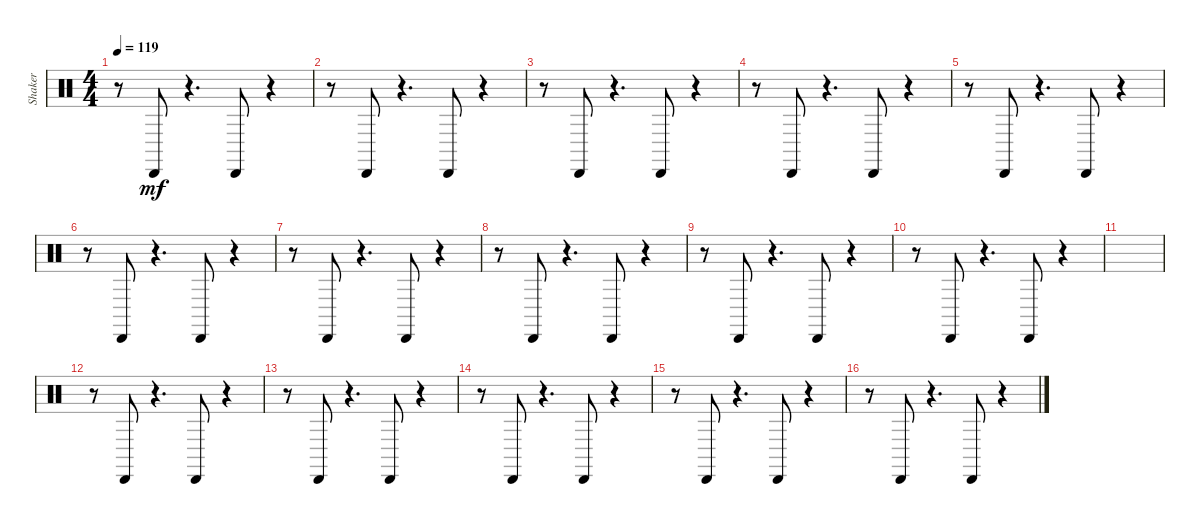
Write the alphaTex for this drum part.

\track ("Shaker" "Shaker") {instrument percussion}
\staff {score}
\articulation defaults
\ts (4 4)
\tempo 119
\clef neutral
\ks c
r.8{dy mf} "Cabasa (hit)".8 r.4{d} "Cabasa (hit)".8 r.4 |
r.8 "Cabasa (hit)".8 r.4{d} "Cabasa (hit)".8 r.4 |
r.8 "Cabasa (hit)".8 r.4{d} "Cabasa (hit)".8 r.4 |
r.8 "Cabasa (hit)".8 r.4{d} "Cabasa (hit)".8 r.4 |
r.8 "Cabasa (hit)".8 r.4{d} "Cabasa (hit)".8 r.4 |
r.8 "Cabasa (hit)".8 r.4{d} "Cabasa (hit)".8 r.4 |
r.8 "Cabasa (hit)".8 r.4{d} "Cabasa (hit)".8 r.4 |
r.8 "Cabasa (hit)".8 r.4{d} "Cabasa (hit)".8 r.4 |
r.8 "Cabasa (hit)".8 r.4{d} "Cabasa (hit)".8 r.4 |
r.8 "Cabasa (hit)".8 r.4{d} "Cabasa (hit)".8 r.4 |
|
r.8 "Cabasa (hit)".8 r.4{d} "Cabasa (hit)".8 r.4 |
r.8 "Cabasa (hit)".8 r.4{d} "Cabasa (hit)".8 r.4 |
r.8 "Cabasa (hit)".8 r.4{d} "Cabasa (hit)".8 r.4 |
r.8 "Cabasa (hit)".8 r.4{d} "Cabasa (hit)".8 r.4 |
r.8 "Cabasa (hit)".8 r.4{d} "Cabasa (hit)".8 r.4
